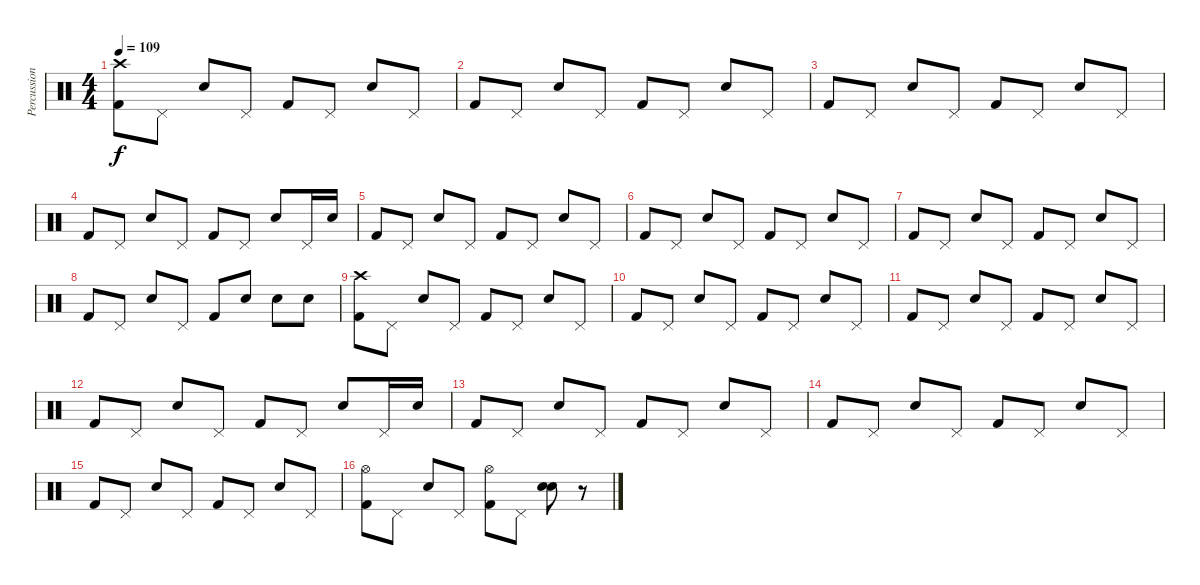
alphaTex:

\track ("Percussions" "Percussion") {instrument percussion}
\staff {score}
\articulation defaults
\ts (4 4)
\tempo 109
\clef neutral
\ks c
("Crash high (hit)" "Kick (hit) 2").8{dy f} "Pedal Hi-Hat (hit)".8 "Snare (hit) 2".8 "Pedal Hi-Hat (hit)".8 "Kick (hit) 2".8 "Pedal Hi-Hat (hit)".8 "Snare (hit) 2".8 "Pedal Hi-Hat (hit)".8 |
"Kick (hit) 2".8 "Pedal Hi-Hat (hit)".8 "Snare (hit) 2".8 "Pedal Hi-Hat (hit)".8 "Kick (hit) 2".8 "Pedal Hi-Hat (hit)".8 "Snare (hit) 2".8 "Pedal Hi-Hat (hit)".8 |
"Kick (hit) 2".8 "Pedal Hi-Hat (hit)".8 "Snare (hit) 2".8 "Pedal Hi-Hat (hit)".8 "Kick (hit) 2".8 "Pedal Hi-Hat (hit)".8 "Snare (hit) 2".8 "Pedal Hi-Hat (hit)".8 |
"Kick (hit) 2".8 "Pedal Hi-Hat (hit)".8 "Snare (hit) 2".8 "Pedal Hi-Hat (hit)".8 "Kick (hit) 2".8 "Pedal Hi-Hat (hit)".8 "Snare (hit) 2".8 "Pedal Hi-Hat (hit)".16 "Snare (hit) 2".16 |
"Kick (hit) 2".8 "Pedal Hi-Hat (hit)".8 "Snare (hit) 2".8 "Pedal Hi-Hat (hit)".8 "Kick (hit) 2".8 "Pedal Hi-Hat (hit)".8 "Snare (hit) 2".8 "Pedal Hi-Hat (hit)".8 |
"Kick (hit) 2".8 "Pedal Hi-Hat (hit)".8 "Snare (hit) 2".8 "Pedal Hi-Hat (hit)".8 "Kick (hit) 2".8 "Pedal Hi-Hat (hit)".8 "Snare (hit) 2".8 "Pedal Hi-Hat (hit)".8 |
"Kick (hit) 2".8 "Pedal Hi-Hat (hit)".8 "Snare (hit) 2".8 "Pedal Hi-Hat (hit)".8 "Kick (hit) 2".8 "Pedal Hi-Hat (hit)".8 "Snare (hit) 2".8 "Pedal Hi-Hat (hit)".8 |
"Kick (hit) 2".8 "Pedal Hi-Hat (hit)".8 "Snare (hit) 2".8 "Pedal Hi-Hat (hit)".8 "Kick (hit) 2".8 "Snare (hit) 2".8 "Snare (hit) 2".8 "Snare (hit) 2".8 |
("Crash high (hit)" "Kick (hit) 2").8 "Pedal Hi-Hat (hit)".8 "Snare (hit) 2".8 "Pedal Hi-Hat (hit)".8 "Kick (hit) 2".8 "Pedal Hi-Hat (hit)".8 "Snare (hit) 2".8 "Pedal Hi-Hat (hit)".8 |
"Kick (hit) 2".8 "Pedal Hi-Hat (hit)".8 "Snare (hit) 2".8 "Pedal Hi-Hat (hit)".8 "Kick (hit) 2".8 "Pedal Hi-Hat (hit)".8 "Snare (hit) 2".8 "Pedal Hi-Hat (hit)".8 |
"Kick (hit) 2".8 "Pedal Hi-Hat (hit)".8 "Snare (hit) 2".8 "Pedal Hi-Hat (hit)".8 "Kick (hit) 2".8 "Pedal Hi-Hat (hit)".8 "Snare (hit) 2".8 "Pedal Hi-Hat (hit)".8 |
"Kick (hit) 2".8 "Pedal Hi-Hat (hit)".8 "Snare (hit) 2".8 "Pedal Hi-Hat (hit)".8 "Kick (hit) 2".8 "Pedal Hi-Hat (hit)".8 "Snare (hit) 2".8 "Pedal Hi-Hat (hit)".16 "Snare (hit) 2".16 |
"Kick (hit) 2".8 "Pedal Hi-Hat (hit)".8 "Snare (hit) 2".8 "Pedal Hi-Hat (hit)".8 "Kick (hit) 2".8 "Pedal Hi-Hat (hit)".8 "Snare (hit) 2".8 "Pedal Hi-Hat (hit)".8 |
"Kick (hit) 2".8 "Pedal Hi-Hat (hit)".8 "Snare (hit) 2".8 "Pedal Hi-Hat (hit)".8 "Kick (hit) 2".8 "Pedal Hi-Hat (hit)".8 "Snare (hit) 2".8 "Pedal Hi-Hat (hit)".8 |
"Kick (hit) 2".8 "Pedal Hi-Hat (hit)".8 "Snare (hit) 2".8 "Pedal Hi-Hat (hit)".8 "Kick (hit) 2".8 "Pedal Hi-Hat (hit)".8 "Snare (hit) 2".8 "Pedal Hi-Hat (hit)".8 |
("Kick (hit) 2" "Hi-Hat (open)").8 "Pedal Hi-Hat (hit)".8 "Snare (hit) 2".8 "Pedal Hi-Hat (hit)".8 ("Kick (hit) 2" "Hi-Hat (open)").8 "Pedal Hi-Hat (hit)".8 ("Snare (hit) 2" "Snare (hit) 2").8 r.8
